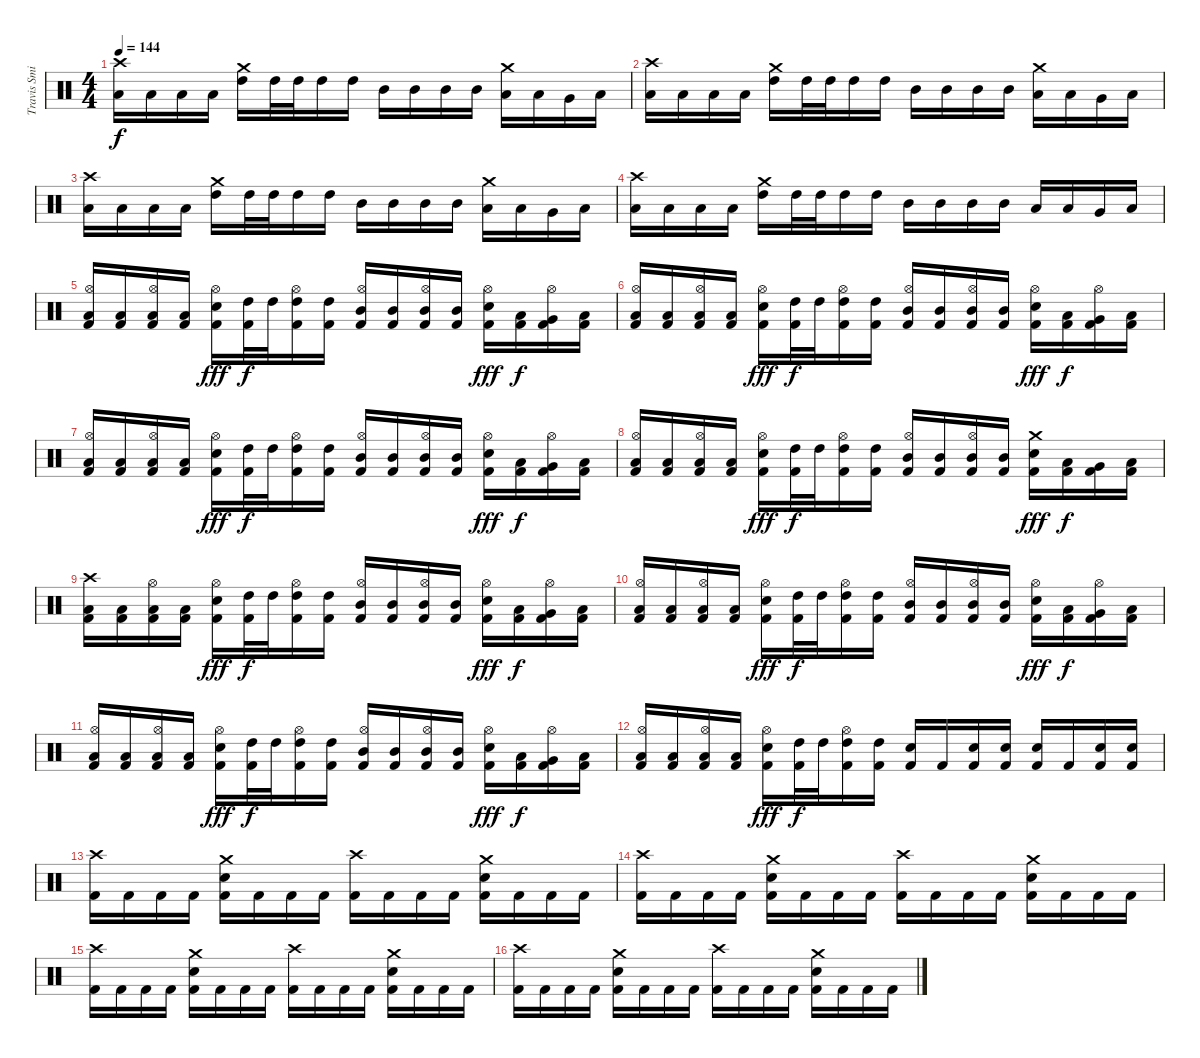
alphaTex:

\track ("Travis Smith" "Travis Smi") {instrument percussion}
\staff {score}
\articulation defaults
\ts (4 4)
\tempo 144
\clef neutral
\ks c
("Crash high (hit)" "Low Tom (hit)").16{dy f} "Low Tom (hit)".16 "Low Tom (hit)".16 "Low Tom (hit)".16 ("Crash medium (hit)" "High Tom (hit)").16 "High Tom (hit)".32 "High Tom (hit)".32 "High Tom (hit)".16 "High Tom (hit)".16 "Mid Tom (hit)".16 "Mid Tom (hit)".16 "Mid Tom (hit)".16 "Mid Tom (hit)".16 ("Crash medium (hit)" "Low Tom (hit)").16 "Low Tom (hit)".16 "Very Low Tom (hit)".16 "Low Floor Tom (hit)".16 |
("Crash high (hit)" "Low Tom (hit)").16 "Low Tom (hit)".16 "Low Tom (hit)".16 "Low Tom (hit)".16 ("Crash medium (hit)" "High Tom (hit)").16 "High Tom (hit)".32 "High Tom (hit)".32 "High Tom (hit)".16 "High Tom (hit)".16 "Mid Tom (hit)".16 "Mid Tom (hit)".16 "Mid Tom (hit)".16 "Mid Tom (hit)".16 ("Crash medium (hit)" "Low Tom (hit)").16 "Low Tom (hit)".16 "Very Low Tom (hit)".16 "Low Floor Tom (hit)".16 |
("Crash high (hit)" "Low Tom (hit)").16 "Low Tom (hit)".16 "Low Tom (hit)".16 "Low Tom (hit)".16 ("Crash medium (hit)" "High Tom (hit)").16 "High Tom (hit)".32 "High Tom (hit)".32 "High Tom (hit)".16 "High Tom (hit)".16 "Mid Tom (hit)".16 "Mid Tom (hit)".16 "Mid Tom (hit)".16 "Mid Tom (hit)".16 ("Crash medium (hit)" "Low Tom (hit)").16 "Low Tom (hit)".16 "Very Low Tom (hit)".16 "Low Floor Tom (hit)".16 |
("Crash high (hit)" "Low Tom (hit)").16 "Low Tom (hit)".16 "Low Tom (hit)".16 "Low Tom (hit)".16 ("Crash medium (hit)" "High Tom (hit)").16 "High Tom (hit)".32 "High Tom (hit)".32 "High Tom (hit)".16 "High Tom (hit)".16 "Mid Tom (hit)".16 "Mid Tom (hit)".16 "Mid Tom (hit)".16 "Mid Tom (hit)".16 "Low Tom (hit)".16 "Low Tom (hit)".16 "Very Low Tom (hit)".16 "Low Floor Tom (hit)".16 |
("Hi-Hat (open)" "Low Tom (hit)" "Kick (hit) 2").16 ("Low Tom (hit)" "Kick (hit) 2").16 ("Hi-Hat (open)" "Low Tom (hit)" "Kick (hit) 2").16 ("Low Tom (hit)" "Kick (hit) 2").16 ("Hi-Hat (open)" "Electric Snare (hit)" "Kick (hit) 2").16{dy fff} ("High Tom (hit)" "Kick (hit) 2").32{dy f} "High Tom (hit)".32 ("Hi-Hat (open)" "High Tom (hit)" "Kick (hit) 2").16 ("High Tom (hit)" "Kick (hit) 2").16 ("Hi-Hat (open)" "Mid Tom (hit)" "Kick (hit) 2").16 ("Mid Tom (hit)" "Kick (hit) 2").16 ("Hi-Hat (open)" "Mid Tom (hit)" "Kick (hit) 2").16 ("Mid Tom (hit)" "Kick (hit) 2").16 ("Hi-Hat (open)" "Electric Snare (hit)" "Kick (hit) 2").16{dy fff} ("Low Tom (hit)" "Kick (hit) 2").16{dy f} ("Hi-Hat (open)" "Very Low Tom (hit)" "Kick (hit) 2").16 ("Low Floor Tom (hit)" "Kick (hit) 2").16 |
("Hi-Hat (open)" "Low Tom (hit)" "Kick (hit) 2").16 ("Low Tom (hit)" "Kick (hit) 2").16 ("Hi-Hat (open)" "Low Tom (hit)" "Kick (hit) 2").16 ("Low Tom (hit)" "Kick (hit) 2").16 ("Hi-Hat (open)" "Electric Snare (hit)" "Kick (hit) 2").16{dy fff} ("High Tom (hit)" "Kick (hit) 2").32{dy f} "High Tom (hit)".32 ("Hi-Hat (open)" "High Tom (hit)" "Kick (hit) 2").16 ("High Tom (hit)" "Kick (hit) 2").16 ("Hi-Hat (open)" "Mid Tom (hit)" "Kick (hit) 2").16 ("Mid Tom (hit)" "Kick (hit) 2").16 ("Hi-Hat (open)" "Mid Tom (hit)" "Kick (hit) 2").16 ("Mid Tom (hit)" "Kick (hit) 2").16 ("Hi-Hat (open)" "Electric Snare (hit)" "Kick (hit) 2").16{dy fff} ("Low Tom (hit)" "Kick (hit) 2").16{dy f} ("Hi-Hat (open)" "Very Low Tom (hit)" "Kick (hit) 2").16 ("Low Floor Tom (hit)" "Kick (hit) 2").16 |
("Hi-Hat (open)" "Low Tom (hit)" "Kick (hit) 2").16 ("Low Tom (hit)" "Kick (hit) 2").16 ("Hi-Hat (open)" "Low Tom (hit)" "Kick (hit) 2").16 ("Low Tom (hit)" "Kick (hit) 2").16 ("Hi-Hat (open)" "Electric Snare (hit)" "Kick (hit) 2").16{dy fff} ("High Tom (hit)" "Kick (hit) 2").32{dy f} "High Tom (hit)".32 ("Hi-Hat (open)" "High Tom (hit)" "Kick (hit) 2").16 ("High Tom (hit)" "Kick (hit) 2").16 ("Hi-Hat (open)" "Mid Tom (hit)" "Kick (hit) 2").16 ("Mid Tom (hit)" "Kick (hit) 2").16 ("Hi-Hat (open)" "Mid Tom (hit)" "Kick (hit) 2").16 ("Mid Tom (hit)" "Kick (hit) 2").16 ("Hi-Hat (open)" "Electric Snare (hit)" "Kick (hit) 2").16{dy fff} ("Low Tom (hit)" "Kick (hit) 2").16{dy f} ("Hi-Hat (open)" "Very Low Tom (hit)" "Kick (hit) 2").16 ("Low Floor Tom (hit)" "Kick (hit) 2").16 |
("Hi-Hat (open)" "Low Tom (hit)" "Kick (hit) 2").16 ("Low Tom (hit)" "Kick (hit) 2").16 ("Hi-Hat (open)" "Low Tom (hit)" "Kick (hit) 2").16 ("Low Tom (hit)" "Kick (hit) 2").16 ("Hi-Hat (open)" "Electric Snare (hit)" "Kick (hit) 2").16{dy fff} ("High Tom (hit)" "Kick (hit) 2").32{dy f} "High Tom (hit)".32 ("Hi-Hat (open)" "High Tom (hit)" "Kick (hit) 2").16 ("High Tom (hit)" "Kick (hit) 2").16 ("Hi-Hat (open)" "Mid Tom (hit)" "Kick (hit) 2").16 ("Mid Tom (hit)" "Kick (hit) 2").16 ("Hi-Hat (open)" "Mid Tom (hit)" "Kick (hit) 2").16 ("Mid Tom (hit)" "Kick (hit) 2").16 ("Crash medium (hit)" "Electric Snare (hit)" "Kick (hit) 2").16{dy fff} ("Low Tom (hit)" "Kick (hit) 2").16{dy f} ("Very Low Tom (hit)" "Kick (hit) 2").16 ("Low Floor Tom (hit)" "Kick (hit) 2").16 |
("Crash high (hit)" "Low Tom (hit)" "Kick (hit) 2").16 ("Low Tom (hit)" "Kick (hit) 2").16 ("Hi-Hat (open)" "Low Tom (hit)" "Kick (hit) 2").16 ("Low Tom (hit)" "Kick (hit) 2").16 ("Hi-Hat (open)" "Electric Snare (hit)" "Kick (hit) 2").16{dy fff} ("High Tom (hit)" "Kick (hit) 2").32{dy f} "High Tom (hit)".32 ("Hi-Hat (open)" "High Tom (hit)" "Kick (hit) 2").16 ("High Tom (hit)" "Kick (hit) 2").16 ("Hi-Hat (open)" "Mid Tom (hit)" "Kick (hit) 2").16 ("Mid Tom (hit)" "Kick (hit) 2").16 ("Hi-Hat (open)" "Mid Tom (hit)" "Kick (hit) 2").16 ("Mid Tom (hit)" "Kick (hit) 2").16 ("Hi-Hat (open)" "Electric Snare (hit)" "Kick (hit) 2").16{dy fff} ("Low Tom (hit)" "Kick (hit) 2").16{dy f} ("Hi-Hat (open)" "Very Low Tom (hit)" "Kick (hit) 2").16 ("Low Floor Tom (hit)" "Kick (hit) 2").16 |
("Hi-Hat (open)" "Low Tom (hit)" "Kick (hit) 2").16 ("Low Tom (hit)" "Kick (hit) 2").16 ("Hi-Hat (open)" "Low Tom (hit)" "Kick (hit) 2").16 ("Low Tom (hit)" "Kick (hit) 2").16 ("Hi-Hat (open)" "Electric Snare (hit)" "Kick (hit) 2").16{dy fff} ("High Tom (hit)" "Kick (hit) 2").32{dy f} "High Tom (hit)".32 ("Hi-Hat (open)" "High Tom (hit)" "Kick (hit) 2").16 ("High Tom (hit)" "Kick (hit) 2").16 ("Hi-Hat (open)" "Mid Tom (hit)" "Kick (hit) 2").16 ("Mid Tom (hit)" "Kick (hit) 2").16 ("Hi-Hat (open)" "Mid Tom (hit)" "Kick (hit) 2").16 ("Mid Tom (hit)" "Kick (hit) 2").16 ("Hi-Hat (open)" "Electric Snare (hit)" "Kick (hit) 2").16{dy fff} ("Low Tom (hit)" "Kick (hit) 2").16{dy f} ("Hi-Hat (open)" "Very Low Tom (hit)" "Kick (hit) 2").16 ("Low Floor Tom (hit)" "Kick (hit) 2").16 |
("Hi-Hat (open)" "Low Tom (hit)" "Kick (hit) 2").16 ("Low Tom (hit)" "Kick (hit) 2").16 ("Hi-Hat (open)" "Low Tom (hit)" "Kick (hit) 2").16 ("Low Tom (hit)" "Kick (hit) 2").16 ("Hi-Hat (open)" "Electric Snare (hit)" "Kick (hit) 2").16{dy fff} ("High Tom (hit)" "Kick (hit) 2").32{dy f} "High Tom (hit)".32 ("Hi-Hat (open)" "High Tom (hit)" "Kick (hit) 2").16 ("High Tom (hit)" "Kick (hit) 2").16 ("Hi-Hat (open)" "Mid Tom (hit)" "Kick (hit) 2").16 ("Mid Tom (hit)" "Kick (hit) 2").16 ("Hi-Hat (open)" "Mid Tom (hit)" "Kick (hit) 2").16 ("Mid Tom (hit)" "Kick (hit) 2").16 ("Hi-Hat (open)" "Electric Snare (hit)" "Kick (hit) 2").16{dy fff} ("Low Tom (hit)" "Kick (hit) 2").16{dy f} ("Hi-Hat (open)" "Very Low Tom (hit)" "Kick (hit) 2").16 ("Low Floor Tom (hit)" "Kick (hit) 2").16 |
("Hi-Hat (open)" "Low Tom (hit)" "Kick (hit) 2").16 ("Low Tom (hit)" "Kick (hit) 2").16 ("Hi-Hat (open)" "Low Tom (hit)" "Kick (hit) 2").16 ("Low Tom (hit)" "Kick (hit) 2").16 ("Hi-Hat (open)" "Electric Snare (hit)" "Kick (hit) 2").16{dy fff} ("High Tom (hit)" "Kick (hit) 2").32{dy f} "High Tom (hit)".32 ("Hi-Hat (open)" "High Tom (hit)" "Kick (hit) 2").16 ("High Tom (hit)" "Kick (hit) 2").16 ("Electric Snare (hit)" "Kick (hit) 2").16 "Kick (hit) 2".16 ("Electric Snare (hit)" "Kick (hit) 2").16 ("Electric Snare (hit)" "Kick (hit) 2").16 ("Electric Snare (hit)" "Kick (hit) 2").16 "Kick (hit) 2".16 ("Electric Snare (hit)" "Kick (hit) 2").16 ("Electric Snare (hit)" "Kick (hit) 2").16 |
("Crash high (hit)" "Kick (hit) 2").16 "Kick (hit) 2".16 "Kick (hit) 2".16 "Kick (hit) 2".16 ("Crash medium (hit)" "Electric Snare (hit)" "Kick (hit) 2").16 "Kick (hit) 2".16 "Kick (hit) 2".16 "Kick (hit) 2".16 ("Crash high (hit)" "Kick (hit) 2").16 "Kick (hit) 2".16 "Kick (hit) 2".16 "Kick (hit) 2".16 ("Crash medium (hit)" "Electric Snare (hit)" "Kick (hit) 2").16 "Kick (hit) 2".16 "Kick (hit) 2".16 "Kick (hit) 2".16 |
("Crash high (hit)" "Kick (hit) 2").16 "Kick (hit) 2".16 "Kick (hit) 2".16 "Kick (hit) 2".16 ("Crash medium (hit)" "Electric Snare (hit)" "Kick (hit) 2").16 "Kick (hit) 2".16 "Kick (hit) 2".16 "Kick (hit) 2".16 ("Crash high (hit)" "Kick (hit) 2").16 "Kick (hit) 2".16 "Kick (hit) 2".16 "Kick (hit) 2".16 ("Crash medium (hit)" "Electric Snare (hit)" "Kick (hit) 2").16 "Kick (hit) 2".16 "Kick (hit) 2".16 "Kick (hit) 2".16 |
("Crash high (hit)" "Kick (hit) 2").16 "Kick (hit) 2".16 "Kick (hit) 2".16 "Kick (hit) 2".16 ("Crash medium (hit)" "Electric Snare (hit)" "Kick (hit) 2").16 "Kick (hit) 2".16 "Kick (hit) 2".16 "Kick (hit) 2".16 ("Crash high (hit)" "Kick (hit) 2").16 "Kick (hit) 2".16 "Kick (hit) 2".16 "Kick (hit) 2".16 ("Crash medium (hit)" "Electric Snare (hit)" "Kick (hit) 2").16 "Kick (hit) 2".16 "Kick (hit) 2".16 "Kick (hit) 2".16 |
("Crash high (hit)" "Kick (hit) 2").16 "Kick (hit) 2".16 "Kick (hit) 2".16 "Kick (hit) 2".16 ("Crash medium (hit)" "Electric Snare (hit)" "Kick (hit) 2").16 "Kick (hit) 2".16 "Kick (hit) 2".16 "Kick (hit) 2".16 ("Crash high (hit)" "Kick (hit) 2").16 "Kick (hit) 2".16 "Kick (hit) 2".16 "Kick (hit) 2".16 ("Crash medium (hit)" "Electric Snare (hit)" "Kick (hit) 2").16 "Kick (hit) 2".16 "Kick (hit) 2".16 "Kick (hit) 2".16
